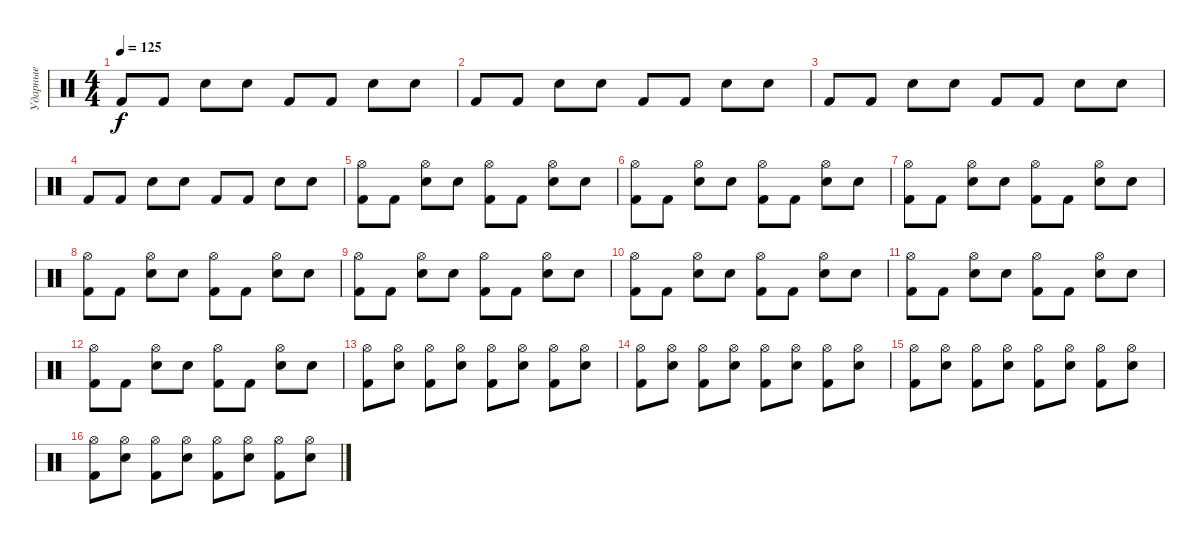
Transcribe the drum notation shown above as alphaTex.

\track ("Ударные" "Ударные") {instrument percussion}
\staff {score}
\articulation defaults
\ts (4 4)
\tempo 125
\clef neutral
\ks c "Kick (hit) 2".8{dy f} "Kick (hit) 2".8 "Snare (hit) 2".8 "Snare (hit)".8 "Kick (hit) 2".8 "Kick (hit) 2".8 "Snare (hit) 2".8 "Snare (hit)".8
|
"Kick (hit) 2".8 "Kick (hit) 2".8 "Snare (hit) 2".8 "Snare (hit)".8 "Kick (hit) 2".8 "Kick (hit) 2".8 "Snare (hit) 2".8 "Snare (hit)".8 |
"Kick (hit) 2".8 "Kick (hit) 2".8 "Snare (hit) 2".8 "Snare (hit)".8 "Kick (hit) 2".8 "Kick (hit) 2".8 "Snare (hit) 2".8 "Snare (hit)".8 |
"Kick (hit) 2".8 "Kick (hit) 2".8 "Snare (hit) 2".8 "Snare (hit)".8 "Kick (hit) 2".8 "Kick (hit) 2".8 "Snare (hit) 2".8 "Snare (hit)".8 |
("Hi-Hat (open)" "Kick (hit) 2").8 "Kick (hit) 2".8 ("Hi-Hat (open)" "Snare (hit) 2").8 "Snare (hit)".8 ("Hi-Hat (open)" "Kick (hit) 2").8 "Kick (hit) 2".8 ("Hi-Hat (open)" "Snare (hit) 2").8 "Snare (hit)".8 |
("Hi-Hat (open)" "Kick (hit) 2").8 "Kick (hit) 2".8 ("Hi-Hat (open)" "Snare (hit) 2").8 "Snare (hit)".8 ("Hi-Hat (open)" "Kick (hit) 2").8 "Kick (hit) 2".8 ("Hi-Hat (open)" "Snare (hit) 2").8 "Snare (hit)".8 |
("Hi-Hat (open)" "Kick (hit) 2").8 "Kick (hit) 2".8 ("Hi-Hat (open)" "Snare (hit) 2").8 "Snare (hit)".8 ("Hi-Hat (open)" "Kick (hit) 2").8 "Kick (hit) 2".8 ("Hi-Hat (open)" "Snare (hit) 2").8 "Snare (hit)".8 |
("Hi-Hat (open)" "Kick (hit) 2").8 "Kick (hit) 2".8 ("Hi-Hat (open)" "Snare (hit) 2").8 "Snare (hit)".8 ("Hi-Hat (open)" "Kick (hit) 2").8 "Kick (hit) 2".8 ("Hi-Hat (open)" "Snare (hit) 2").8 "Snare (hit)".8 |
("Hi-Hat (open)" "Kick (hit) 2").8 "Kick (hit) 2".8 ("Hi-Hat (open)" "Snare (hit) 2").8 "Snare (hit)".8 ("Hi-Hat (open)" "Kick (hit) 2").8 "Kick (hit) 2".8 ("Hi-Hat (open)" "Snare (hit) 2").8 "Snare (hit)".8 |
("Hi-Hat (open)" "Kick (hit) 2").8 "Kick (hit) 2".8 ("Hi-Hat (open)" "Snare (hit) 2").8 "Snare (hit)".8 ("Hi-Hat (open)" "Kick (hit) 2").8 "Kick (hit) 2".8 ("Hi-Hat (open)" "Snare (hit) 2").8 "Snare (hit)".8 |
("Hi-Hat (open)" "Kick (hit) 2").8 "Kick (hit) 2".8 ("Hi-Hat (open)" "Snare (hit) 2").8 "Snare (hit)".8 ("Hi-Hat (open)" "Kick (hit) 2").8 "Kick (hit) 2".8 ("Hi-Hat (open)" "Snare (hit) 2").8 "Snare (hit)".8 |
("Hi-Hat (open)" "Kick (hit) 2").8 "Kick (hit) 2".8 ("Hi-Hat (open)" "Snare (hit) 2").8 "Snare (hit)".8 ("Hi-Hat (open)" "Kick (hit) 2").8 "Kick (hit) 2".8 ("Hi-Hat (open)" "Snare (hit) 2").8 "Snare (hit)".8 |
("Hi-Hat (open)" "Kick (hit) 2").8 ("Hi-Hat (open)" "Snare (hit) 2").8 ("Hi-Hat (open)" "Kick (hit) 2").8 ("Hi-Hat (open)" "Snare (hit) 2").8 ("Hi-Hat (open)" "Kick (hit) 2").8 ("Hi-Hat (open)" "Snare (hit) 2").8 ("Hi-Hat (open)" "Kick (hit) 2").8 ("Hi-Hat (open)" "Snare (hit) 2").8 |
("Hi-Hat (open)" "Kick (hit) 2").8 ("Hi-Hat (open)" "Snare (hit) 2").8 ("Hi-Hat (open)" "Kick (hit) 2").8 ("Hi-Hat (open)" "Snare (hit) 2").8 ("Hi-Hat (open)" "Kick (hit) 2").8 ("Hi-Hat (open)" "Snare (hit) 2").8 ("Hi-Hat (open)" "Kick (hit) 2").8 ("Hi-Hat (open)" "Snare (hit) 2").8 |
("Hi-Hat (open)" "Kick (hit) 2").8 ("Hi-Hat (open)" "Snare (hit) 2").8 ("Hi-Hat (open)" "Kick (hit) 2").8 ("Hi-Hat (open)" "Snare (hit) 2").8 ("Hi-Hat (open)" "Kick (hit) 2").8 ("Hi-Hat (open)" "Snare (hit) 2").8 ("Hi-Hat (open)" "Kick (hit) 2").8 ("Hi-Hat (open)" "Snare (hit) 2").8 |
("Hi-Hat (open)" "Kick (hit) 2").8 ("Hi-Hat (open)" "Snare (hit) 2").8 ("Hi-Hat (open)" "Kick (hit) 2").8 ("Hi-Hat (open)" "Snare (hit) 2").8 ("Hi-Hat (open)" "Kick (hit) 2").8 ("Hi-Hat (open)" "Snare (hit) 2").8 ("Hi-Hat (open)" "Kick (hit) 2").8 ("Hi-Hat (open)" "Snare (hit) 2").8
